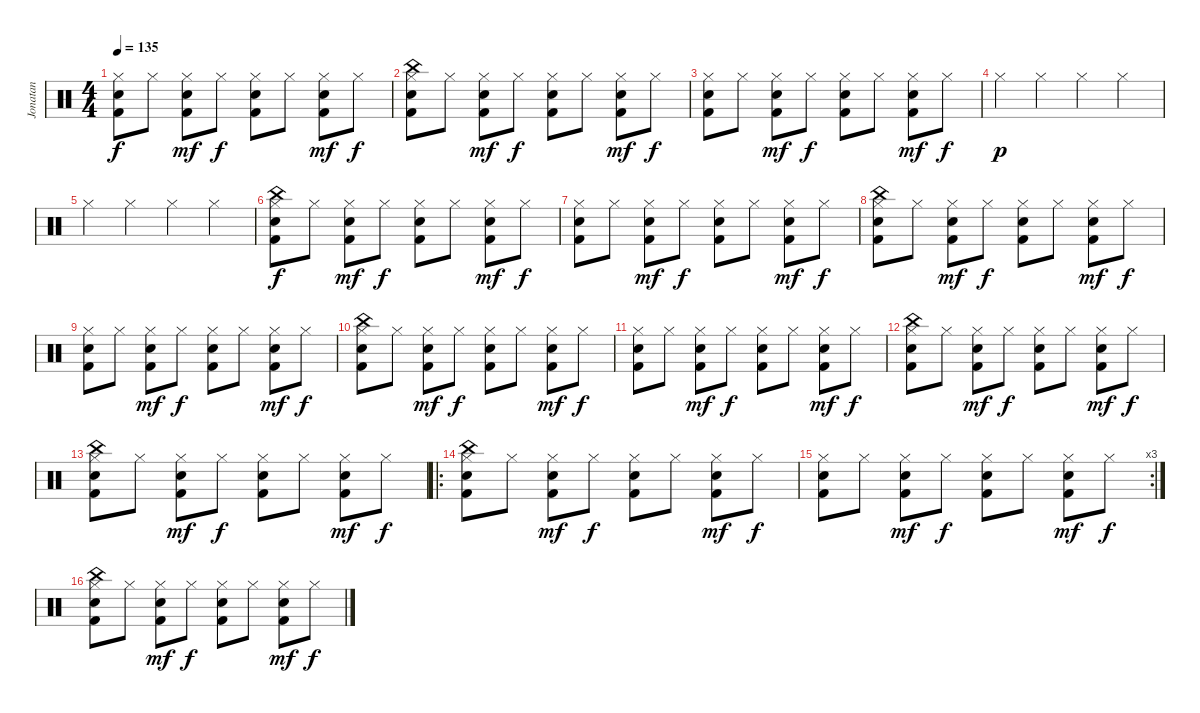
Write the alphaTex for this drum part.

\track ("Jonatan" "Jonatan") {instrument percussion}
\staff {score}
\articulation defaults
\ts (4 4)
\tempo 135
\clef neutral
\ks c
("Hi-Hat (closed)" "Electric Snare (hit)" "Kick (hit) 2").8{dy f} "Hi-Hat (closed)".8 ("Hi-Hat (closed)" "Electric Snare (hit)" "Kick (hit) 2").8{dy mf} "Hi-Hat (closed)".8{dy f} ("Hi-Hat (closed)" "Electric Snare (hit)" "Kick (hit) 2").8 "Hi-Hat (closed)".8 ("Hi-Hat (closed)" "Electric Snare (hit)" "Kick (hit) 2").8{dy mf} "Hi-Hat (closed)".8{dy f} |
("China (hit)" "Hi-Hat (closed)" "Electric Snare (hit)" "Kick (hit) 2").8 "Hi-Hat (closed)".8 ("Hi-Hat (closed)" "Electric Snare (hit)" "Kick (hit) 2").8{dy mf} "Hi-Hat (closed)".8{dy f} ("Hi-Hat (closed)" "Electric Snare (hit)" "Kick (hit) 2").8 "Hi-Hat (closed)".8 ("Hi-Hat (closed)" "Electric Snare (hit)" "Kick (hit) 2").8{dy mf} "Hi-Hat (closed)".8{dy f} |
("Hi-Hat (closed)" "Electric Snare (hit)" "Kick (hit) 2").8 "Hi-Hat (closed)".8 ("Hi-Hat (closed)" "Electric Snare (hit)" "Kick (hit) 2").8{dy mf} "Hi-Hat (closed)".8{dy f} ("Hi-Hat (closed)" "Electric Snare (hit)" "Kick (hit) 2").8 "Hi-Hat (closed)".8 ("Hi-Hat (closed)" "Electric Snare (hit)" "Kick (hit) 2").8{dy mf} "Hi-Hat (closed)".8{dy f} |
"Hi-Hat (closed)".4{dy p} "Hi-Hat (closed)".4 "Hi-Hat (closed)".4 "Hi-Hat (closed)".4 |
"Hi-Hat (closed)".4 "Hi-Hat (closed)".4 "Hi-Hat (closed)".4 "Hi-Hat (closed)".4 |
("China (hit)" "Hi-Hat (closed)" "Electric Snare (hit)" "Kick (hit) 2").8{dy f} "Hi-Hat (closed)".8 ("Hi-Hat (closed)" "Electric Snare (hit)" "Kick (hit) 2").8{dy mf} "Hi-Hat (closed)".8{dy f} ("Hi-Hat (closed)" "Electric Snare (hit)" "Kick (hit) 2").8 "Hi-Hat (closed)".8 ("Hi-Hat (closed)" "Electric Snare (hit)" "Kick (hit) 2").8{dy mf} "Hi-Hat (closed)".8{dy f} |
("Hi-Hat (closed)" "Electric Snare (hit)" "Kick (hit) 2").8 "Hi-Hat (closed)".8 ("Hi-Hat (closed)" "Electric Snare (hit)" "Kick (hit) 2").8{dy mf} "Hi-Hat (closed)".8{dy f} ("Hi-Hat (closed)" "Electric Snare (hit)" "Kick (hit) 2").8 "Hi-Hat (closed)".8 ("Hi-Hat (closed)" "Electric Snare (hit)" "Kick (hit) 2").8{dy mf} "Hi-Hat (closed)".8{dy f} |
("China (hit)" "Hi-Hat (closed)" "Electric Snare (hit)" "Kick (hit) 2").8 "Hi-Hat (closed)".8 ("Hi-Hat (closed)" "Electric Snare (hit)" "Kick (hit) 2").8{dy mf} "Hi-Hat (closed)".8{dy f} ("Hi-Hat (closed)" "Electric Snare (hit)" "Kick (hit) 2").8 "Hi-Hat (closed)".8 ("Hi-Hat (closed)" "Electric Snare (hit)" "Kick (hit) 2").8{dy mf} "Hi-Hat (closed)".8{dy f} |
("Hi-Hat (closed)" "Electric Snare (hit)" "Kick (hit) 2").8 "Hi-Hat (closed)".8 ("Hi-Hat (closed)" "Electric Snare (hit)" "Kick (hit) 2").8{dy mf} "Hi-Hat (closed)".8{dy f} ("Hi-Hat (closed)" "Electric Snare (hit)" "Kick (hit) 2").8 "Hi-Hat (closed)".8 ("Hi-Hat (closed)" "Electric Snare (hit)" "Kick (hit) 2").8{dy mf} "Hi-Hat (closed)".8{dy f} |
("China (hit)" "Hi-Hat (closed)" "Electric Snare (hit)" "Kick (hit) 2").8 "Hi-Hat (closed)".8 ("Hi-Hat (closed)" "Electric Snare (hit)" "Kick (hit) 2").8{dy mf} "Hi-Hat (closed)".8{dy f} ("Hi-Hat (closed)" "Electric Snare (hit)" "Kick (hit) 2").8 "Hi-Hat (closed)".8 ("Hi-Hat (closed)" "Electric Snare (hit)" "Kick (hit) 2").8{dy mf} "Hi-Hat (closed)".8{dy f} |
("Hi-Hat (closed)" "Electric Snare (hit)" "Kick (hit) 2").8 "Hi-Hat (closed)".8 ("Hi-Hat (closed)" "Electric Snare (hit)" "Kick (hit) 2").8{dy mf} "Hi-Hat (closed)".8{dy f} ("Hi-Hat (closed)" "Electric Snare (hit)" "Kick (hit) 2").8 "Hi-Hat (closed)".8 ("Hi-Hat (closed)" "Electric Snare (hit)" "Kick (hit) 2").8{dy mf} "Hi-Hat (closed)".8{dy f} |
("China (hit)" "Hi-Hat (closed)" "Electric Snare (hit)" "Kick (hit) 2").8 "Hi-Hat (closed)".8 ("Hi-Hat (closed)" "Electric Snare (hit)" "Kick (hit) 2").8{dy mf} "Hi-Hat (closed)".8{dy f} ("Hi-Hat (closed)" "Electric Snare (hit)" "Kick (hit) 2").8 "Hi-Hat (closed)".8 ("Hi-Hat (closed)" "Electric Snare (hit)" "Kick (hit) 2").8{dy mf} "Hi-Hat (closed)".8{dy f} |
("China (hit)" "Hi-Hat (closed)" "Electric Snare (hit)" "Kick (hit) 2").8 "Hi-Hat (closed)".8 ("Hi-Hat (closed)" "Electric Snare (hit)" "Kick (hit) 2").8{dy mf} "Hi-Hat (closed)".8{dy f} ("Hi-Hat (closed)" "Electric Snare (hit)" "Kick (hit) 2").8 "Hi-Hat (closed)".8 ("Hi-Hat (closed)" "Electric Snare (hit)" "Kick (hit) 2").8{dy mf} "Hi-Hat (closed)".8{dy f} |
\ro
("China (hit)" "Hi-Hat (closed)" "Electric Snare (hit)" "Kick (hit) 2").8 "Hi-Hat (closed)".8 ("Hi-Hat (closed)" "Electric Snare (hit)" "Kick (hit) 2").8{dy mf} "Hi-Hat (closed)".8{dy f} ("Hi-Hat (closed)" "Electric Snare (hit)" "Kick (hit) 2").8 "Hi-Hat (closed)".8 ("Hi-Hat (closed)" "Electric Snare (hit)" "Kick (hit) 2").8{dy mf} "Hi-Hat (closed)".8{dy f} |
\rc 3
("Hi-Hat (closed)" "Electric Snare (hit)" "Kick (hit) 2").8 "Hi-Hat (closed)".8 ("Hi-Hat (closed)" "Electric Snare (hit)" "Kick (hit) 2").8{dy mf} "Hi-Hat (closed)".8{dy f} ("Hi-Hat (closed)" "Electric Snare (hit)" "Kick (hit) 2").8 "Hi-Hat (closed)".8 ("Hi-Hat (closed)" "Electric Snare (hit)" "Kick (hit) 2").8{dy mf} "Hi-Hat (closed)".8{dy f} |
("China (hit)" "Hi-Hat (closed)" "Electric Snare (hit)" "Kick (hit) 2").8 "Hi-Hat (closed)".8 ("Hi-Hat (closed)" "Electric Snare (hit)" "Kick (hit) 2").8{dy mf} "Hi-Hat (closed)".8{dy f} ("Hi-Hat (closed)" "Electric Snare (hit)" "Kick (hit) 2").8 "Hi-Hat (closed)".8 ("Hi-Hat (closed)" "Electric Snare (hit)" "Kick (hit) 2").8{dy mf} "Hi-Hat (closed)".8{dy f}
